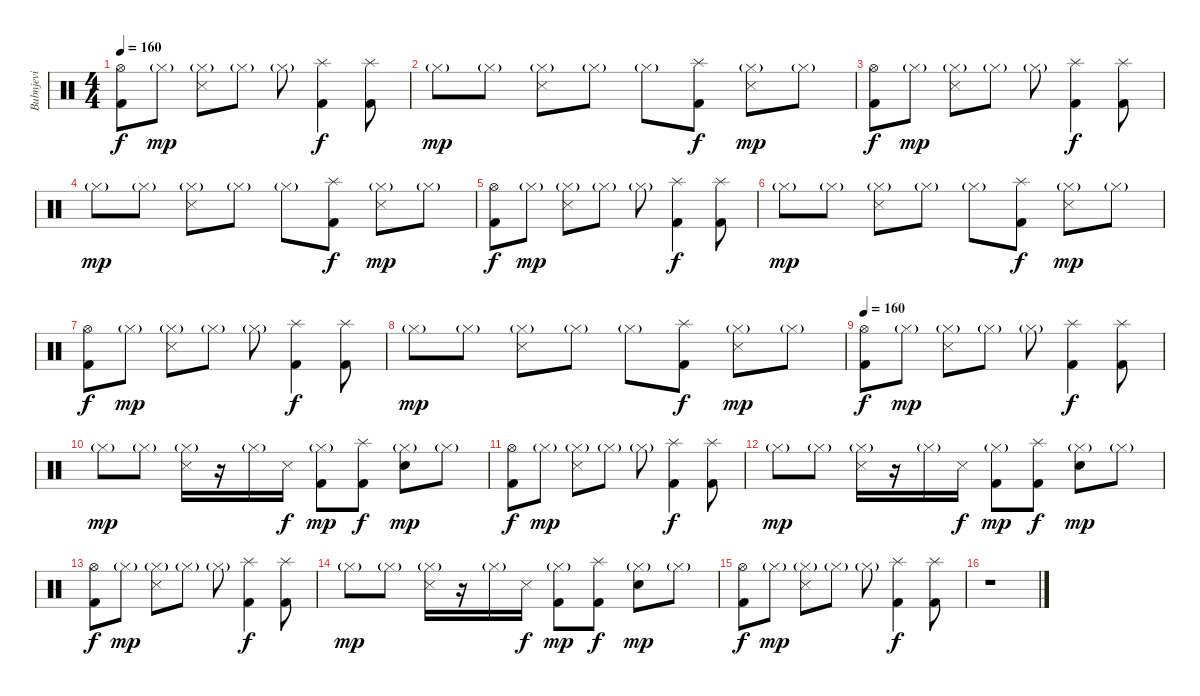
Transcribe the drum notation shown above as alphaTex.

\track ("Bubnjevi" "Bubnjevi") {instrument percussion}
\staff {score}
\articulation defaults
\ts (4 4)
\tempo 160
\clef neutral
\ks c
("Hi-Hat (open)" "Kick (hit) 2").8{dy f} "Hi-Hat (closed)"{g}.8{dy mp} ("Hi-Hat (closed)"{g} "Snare (side stick) 3").8 "Hi-Hat (closed)"{g}.8 "Hi-Hat (closed)"{g}.8 ("Splash (hit)" "Kick (hit) 2").4{dy f} ("Splash (hit)" "Kick (hit) 2").8 |
"Hi-Hat (closed)"{g}.8{dy mp} "Hi-Hat (closed)"{g}.8 ("Hi-Hat (closed)"{g} "Snare (side stick) 3").8 "Hi-Hat (closed)"{g}.8 "Hi-Hat (closed)"{g}.8 ("Splash (hit)" "Kick (hit) 2").8{dy f} ("Hi-Hat (closed)"{g} "Snare (side stick) 3").8{dy mp} "Hi-Hat (closed)"{g}.8 |
("Hi-Hat (open)" "Kick (hit) 2").8{dy f} "Hi-Hat (closed)"{g}.8{dy mp} ("Hi-Hat (closed)"{g} "Snare (side stick) 3").8 "Hi-Hat (closed)"{g}.8 "Hi-Hat (closed)"{g}.8 ("Splash (hit)" "Kick (hit) 2").4{dy f} ("Splash (hit)" "Kick (hit) 2").8 |
"Hi-Hat (closed)"{g}.8{dy mp} "Hi-Hat (closed)"{g}.8 ("Hi-Hat (closed)"{g} "Snare (side stick) 3").8 "Hi-Hat (closed)"{g}.8 "Hi-Hat (closed)"{g}.8 ("Splash (hit)" "Kick (hit) 2").8{dy f} ("Hi-Hat (closed)"{g} "Snare (side stick) 3").8{dy mp} "Hi-Hat (closed)"{g}.8 |
("Hi-Hat (open)" "Kick (hit) 2").8{dy f} "Hi-Hat (closed)"{g}.8{dy mp} ("Hi-Hat (closed)"{g} "Snare (side stick) 3").8 "Hi-Hat (closed)"{g}.8 "Hi-Hat (closed)"{g}.8 ("Splash (hit)" "Kick (hit) 2").4{dy f} ("Splash (hit)" "Kick (hit) 2").8 |
"Hi-Hat (closed)"{g}.8{dy mp} "Hi-Hat (closed)"{g}.8 ("Hi-Hat (closed)"{g} "Snare (side stick) 3").8 "Hi-Hat (closed)"{g}.8 "Hi-Hat (closed)"{g}.8 ("Splash (hit)" "Kick (hit) 2").8{dy f} ("Hi-Hat (closed)"{g} "Snare (side stick) 3").8{dy mp} "Hi-Hat (closed)"{g}.8 |
("Hi-Hat (open)" "Kick (hit) 2").8{dy f} "Hi-Hat (closed)"{g}.8{dy mp} ("Hi-Hat (closed)"{g} "Snare (side stick) 3").8 "Hi-Hat (closed)"{g}.8 "Hi-Hat (closed)"{g}.8 ("Splash (hit)" "Kick (hit) 2").4{dy f} ("Splash (hit)" "Kick (hit) 2").8 |
"Hi-Hat (closed)"{g}.8{dy mp} "Hi-Hat (closed)"{g}.8 ("Hi-Hat (closed)"{g} "Snare (side stick) 3").8 "Hi-Hat (closed)"{g}.8 "Hi-Hat (closed)"{g}.8 ("Splash (hit)" "Kick (hit) 2").8{dy f} ("Hi-Hat (closed)"{g} "Snare (side stick) 3").8{dy mp} "Hi-Hat (closed)"{g}.8 |
\tempo 160
("Hi-Hat (open)" "Kick (hit) 2").8{dy f} "Hi-Hat (closed)"{g}.8{dy mp} ("Hi-Hat (closed)"{g} "Snare (side stick) 3").8 "Hi-Hat (closed)"{g}.8 "Hi-Hat (closed)"{g}.8 ("Splash (hit)" "Kick (hit) 2").4{dy f} ("Splash (hit)" "Kick (hit) 2").8 |
"Hi-Hat (closed)"{g}.8{dy mp} "Hi-Hat (closed)"{g}.8 ("Hi-Hat (closed)"{g} "Snare (side stick) 3").16 r.16 "Hi-Hat (closed)"{g}.16 "Snare (side stick) 3".16{dy f} ("Hi-Hat (closed)"{g} "Kick (hit) 2").8{dy mp} ("Splash (hit)" "Kick (hit) 2").8{dy f} ("Hi-Hat (closed)"{g} "Electric Snare (hit)").8{dy mp} "Hi-Hat (closed)"{g}.8 |
("Hi-Hat (open)" "Kick (hit) 2").8{dy f} "Hi-Hat (closed)"{g}.8{dy mp} ("Hi-Hat (closed)"{g} "Snare (side stick) 3").8 "Hi-Hat (closed)"{g}.8 "Hi-Hat (closed)"{g}.8 ("Splash (hit)" "Kick (hit) 2").4{dy f} ("Splash (hit)" "Kick (hit) 2").8 |
"Hi-Hat (closed)"{g}.8{dy mp} "Hi-Hat (closed)"{g}.8 ("Hi-Hat (closed)"{g} "Snare (side stick) 3").16 r.16 "Hi-Hat (closed)"{g}.16 "Snare (side stick) 3".16{dy f} ("Hi-Hat (closed)"{g} "Kick (hit) 2").8{dy mp} ("Splash (hit)" "Kick (hit) 2").8{dy f} ("Hi-Hat (closed)"{g} "Electric Snare (hit)").8{dy mp} "Hi-Hat (closed)"{g}.8 |
("Hi-Hat (open)" "Kick (hit) 2").8{dy f} "Hi-Hat (closed)"{g}.8{dy mp} ("Hi-Hat (closed)"{g} "Snare (side stick) 3").8 "Hi-Hat (closed)"{g}.8 "Hi-Hat (closed)"{g}.8 ("Splash (hit)" "Kick (hit) 2").4{dy f} ("Splash (hit)" "Kick (hit) 2").8 |
"Hi-Hat (closed)"{g}.8{dy mp} "Hi-Hat (closed)"{g}.8 ("Hi-Hat (closed)"{g} "Snare (side stick) 3").16 r.16 "Hi-Hat (closed)"{g}.16 "Snare (side stick) 3".16{dy f} ("Hi-Hat (closed)"{g} "Kick (hit) 2").8{dy mp} ("Splash (hit)" "Kick (hit) 2").8{dy f} ("Hi-Hat (closed)"{g} "Electric Snare (hit)").8{dy mp} "Hi-Hat (closed)"{g}.8 |
("Hi-Hat (open)" "Kick (hit) 2").8{dy f} "Hi-Hat (closed)"{g}.8{dy mp} ("Hi-Hat (closed)"{g} "Snare (side stick) 3").8 "Hi-Hat (closed)"{g}.8 "Hi-Hat (closed)"{g}.8 ("Splash (hit)" "Kick (hit) 2").4{dy f} ("Splash (hit)" "Kick (hit) 2").8 |
r.1
